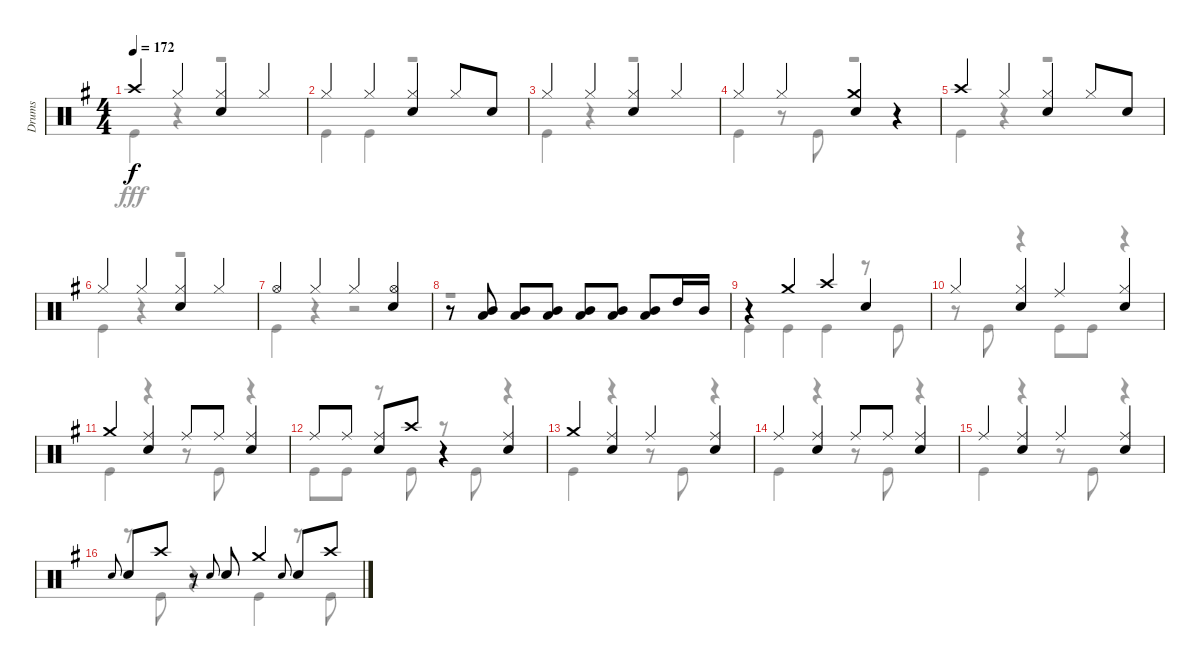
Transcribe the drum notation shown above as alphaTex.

\track ("Drums" "Drums") {instrument percussion}
\staff {score}
\articulation defaults
\voice
\ts (4 4)
\tempo 172
\clef neutral
\ks g "Crash high (hit)".4{dy f} "Hi-Hat (closed)".4
("Hi-Hat (closed)" "Snare (hit) 2").4 "Hi-Hat (closed)".4 |
"Hi-Hat (closed)".4 "Hi-Hat (closed)".4 ("Hi-Hat (closed)" "Snare (hit) 2").4 "Hi-Hat (closed)".8 "Snare (hit) 2".8 |
"Hi-Hat (closed)".4 "Hi-Hat (closed)".4 ("Hi-Hat (closed)" "Snare (hit) 2").4 "Hi-Hat (closed)".4 |
"Hi-Hat (closed)".4 "Hi-Hat (closed)".4 ("Crash medium (hit)" "Snare (hit) 2").4 r.4 |
"Crash high (hit)".4 "Hi-Hat (closed)".4 ("Hi-Hat (closed)" "Snare (hit) 2").4 "Hi-Hat (closed)".8 "Snare (hit) 2".8 |
"Hi-Hat (closed)".4 "Hi-Hat (closed)".4 ("Hi-Hat (closed)" "Snare (hit) 2").4 "Hi-Hat (closed)".4 |
"Hi-Hat (open)".4 "Hi-Hat (closed)".4 "Hi-Hat (closed)".4 ("Hi-Hat (open)" "Snare (hit) 2").4 |
r.8 ("Mid Tom (hit)" "Low Tom (hit)").8 ("Mid Tom (hit)" "Low Tom (hit)").8 ("Mid Tom (hit)" "Low Tom (hit)").8 ("Mid Tom (hit)" "Low Tom (hit)").8 ("Mid Tom (hit)" "Low Tom (hit)").8 ("Mid Tom (hit)" "Low Tom (hit)").8 "High Tom (hit)".16 "Mid Tom (hit)".16 |
r.4 "Crash medium (hit)".4 "Crash high (hit)".4 "Snare (hit) 2".4 |
"Hi-Hat (closed)".4 ("Hi-Hat (closed)" "Snare (hit) 2").4 "Ride (middle)".4 ("Hi-Hat (closed)" "Snare (hit) 2").4 |
"Crash medium (hit)".4 ("Ride (middle)" "Snare (hit) 2").4 "Ride (middle)".8 "Ride (middle)".8 ("Ride (middle)" "Snare (hit) 2").4 |
"Ride (middle)".8 "Ride (middle)".8 ("Ride (middle)" "Snare (hit) 2").8 "Crash high (hit)".8 r.4 ("Ride (middle)" "Snare (hit) 2").4 |
"Crash medium (hit)".4 ("Ride (middle)" "Snare (hit) 2").4 "Ride (middle)".4 ("Ride (middle)" "Snare (hit) 2").4 |
"Ride (middle)".4 ("Ride (middle)" "Snare (hit) 2").4 "Ride (middle)".8 "Ride (middle)".8 ("Ride (middle)" "Snare (hit) 2").4 |
"Ride (middle)".4 ("Ride (middle)" "Snare (hit) 2").4 "Ride (middle)".4 ("Ride (middle)" "Snare (hit) 2").4 |
"Snare (hit) 2".8{gr onbeat} "Snare (hit) 2".8 "Crash high (hit)".8 r.8 "Snare (hit) 2".8{gr onbeat} "Snare (hit) 2".8 "Crash medium (hit)".4 "Snare (hit) 2".8{gr onbeat} "Snare (hit) 2".8 "Crash high (hit)".8
\voice
\clef neutral
\ottava regular
\simile none
\ks g "Kick (hit)".4{dy fff}
r.4 r.2 |
"Kick (hit)".4 "Kick (hit)".4 r.2 |
"Kick (hit)".4 r.4 r.2 |
"Kick (hit)".4 r.8 "Kick (hit)".8 r.2 |
"Kick (hit)".4 r.4 r.2 |
"Kick (hit)".4 r.4 r.2 |
"Kick (hit)".4 r.4 r.2 |
r.1 |
"Kick (hit)".4 "Kick (hit)".4 "Kick (hit)".4 r.8 "Kick (hit)".8 |
r.8 "Kick (hit)".8 r.4 "Kick (hit)".8 "Kick (hit)".8 r.4 |
"Kick (hit)".4 r.4 r.8 "Kick (hit)".8 r.4 |
"Kick (hit)".8 "Kick (hit)".8 r.8 "Kick (hit)".8 r.8 "Kick (hit)".8 r.4 |
"Kick (hit)".4 r.4 r.8 "Kick (hit)".8 r.4 |
"Kick (hit)".4 r.4 r.8 "Kick (hit)".8 r.4 |
"Kick (hit)".4 r.4 r.8 "Kick (hit)".8 r.4 |
r.8 "Kick (hit)".8 r.4 "Kick (hit)".4 r.8 "Kick (hit)".8
